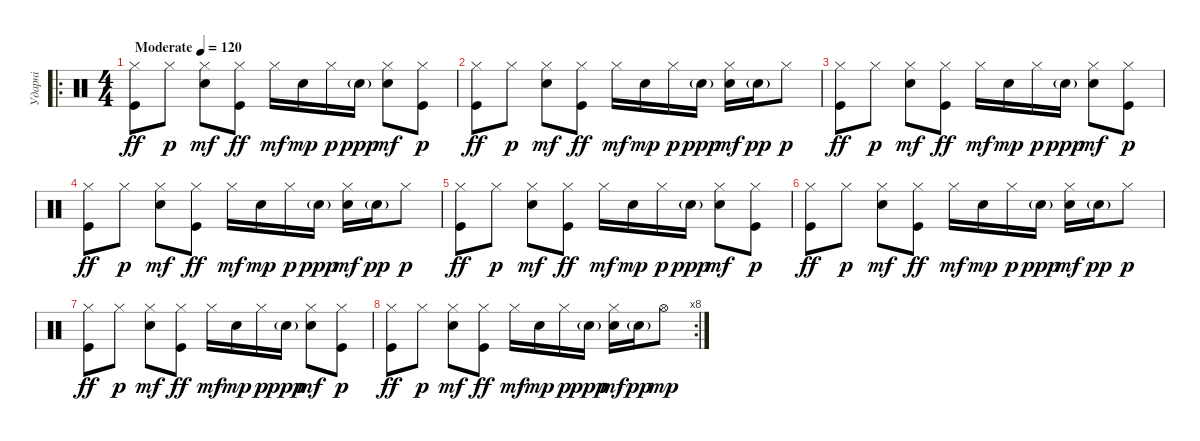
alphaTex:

\track ("Ударні" "Ударні") {instrument percussion}
\staff {score}
\articulation defaults
\ro
\ts (4 4)
\tempo (120 "Moderate")
\clef neutral
\ks c
("Hi-Hat (closed)" "Kick (hit)").8{dy ff} "Hi-Hat (closed)".8{dy p} ("Hi-Hat (closed)" "Snare (hit) 2").8{dy mf} ("Hi-Hat (closed)" "Kick (hit)").8{dy ff} "Hi-Hat (closed)".16{dy mf} "Snare (hit) 2".16{dy mp} "Hi-Hat (closed)".16{dy p} "Snare (hit) 2"{g}.16{dy ppp} ("Hi-Hat (closed)" "Snare (hit) 2").8{dy mf} ("Hi-Hat (closed)" "Kick (hit)").8{dy p} |
("Hi-Hat (closed)" "Kick (hit)").8{dy ff} "Hi-Hat (closed)".8{dy p} ("Hi-Hat (closed)" "Snare (hit) 2").8{dy mf} ("Hi-Hat (closed)" "Kick (hit)").8{dy ff} "Hi-Hat (closed)".16{dy mf} "Snare (hit) 2".16{dy mp} "Hi-Hat (closed)".16{dy p} "Snare (hit) 2"{g}.16{dy ppp} ("Hi-Hat (closed)" "Snare (hit) 2").16{dy mf} "Snare (hit) 2"{g}.16{dy pp} "Hi-Hat (closed)".8{dy p} |
("Hi-Hat (closed)" "Kick (hit)").8{dy ff} "Hi-Hat (closed)".8{dy p} ("Hi-Hat (closed)" "Snare (hit) 2").8{dy mf} ("Hi-Hat (closed)" "Kick (hit)").8{dy ff} "Hi-Hat (closed)".16{dy mf} "Snare (hit) 2".16{dy mp} "Hi-Hat (closed)".16{dy p} "Snare (hit) 2"{g}.16{dy ppp} ("Hi-Hat (closed)" "Snare (hit) 2").8{dy mf} ("Hi-Hat (closed)" "Kick (hit)").8{dy p} |
("Hi-Hat (closed)" "Kick (hit)").8{dy ff} "Hi-Hat (closed)".8{dy p} ("Hi-Hat (closed)" "Snare (hit) 2").8{dy mf} ("Hi-Hat (closed)" "Kick (hit)").8{dy ff} "Hi-Hat (closed)".16{dy mf} "Snare (hit) 2".16{dy mp} "Hi-Hat (closed)".16{dy p} "Snare (hit) 2"{g}.16{dy ppp} ("Hi-Hat (closed)" "Snare (hit) 2").16{dy mf} "Snare (hit) 2"{g}.16{dy pp} "Hi-Hat (closed)".8{dy p} |
("Hi-Hat (closed)" "Kick (hit)").8{dy ff} "Hi-Hat (closed)".8{dy p} ("Hi-Hat (closed)" "Snare (hit) 2").8{dy mf} ("Hi-Hat (closed)" "Kick (hit)").8{dy ff} "Hi-Hat (closed)".16{dy mf} "Snare (hit) 2".16{dy mp} "Hi-Hat (closed)".16{dy p} "Snare (hit) 2"{g}.16{dy ppp} ("Hi-Hat (closed)" "Snare (hit) 2").8{dy mf} ("Hi-Hat (closed)" "Kick (hit)").8{dy p} |
("Hi-Hat (closed)" "Kick (hit)").8{dy ff} "Hi-Hat (closed)".8{dy p} ("Hi-Hat (closed)" "Snare (hit) 2").8{dy mf} ("Hi-Hat (closed)" "Kick (hit)").8{dy ff} "Hi-Hat (closed)".16{dy mf} "Snare (hit) 2".16{dy mp} "Hi-Hat (closed)".16{dy p} "Snare (hit) 2"{g}.16{dy ppp} ("Hi-Hat (closed)" "Snare (hit) 2").16{dy mf} "Snare (hit) 2"{g}.16{dy pp} "Hi-Hat (closed)".8{dy p} |
("Hi-Hat (closed)" "Kick (hit)").8{dy ff} "Hi-Hat (closed)".8{dy p} ("Hi-Hat (closed)" "Snare (hit) 2").8{dy mf} ("Hi-Hat (closed)" "Kick (hit)").8{dy ff} "Hi-Hat (closed)".16{dy mf} "Snare (hit) 2".16{dy mp} "Hi-Hat (closed)".16{dy p} "Snare (hit) 2"{g}.16{dy ppp} ("Hi-Hat (closed)" "Snare (hit) 2").8{dy mf} ("Hi-Hat (closed)" "Kick (hit)").8{dy p} |
\rc 8
("Hi-Hat (closed)" "Kick (hit)").8{dy ff} "Hi-Hat (closed)".8{dy p} ("Hi-Hat (closed)" "Snare (hit) 2").8{dy mf} ("Hi-Hat (closed)" "Kick (hit)").8{dy ff} "Hi-Hat (closed)".16{dy mf} "Snare (hit) 2".16{dy mp} "Hi-Hat (closed)".16{dy p} "Snare (hit) 2"{g}.16{dy ppp} ("Hi-Hat (closed)" "Snare (hit) 2").16{dy mf} "Snare (hit) 2"{g}.16{dy pp} "Hi-Hat (open)".8{dy mp}
